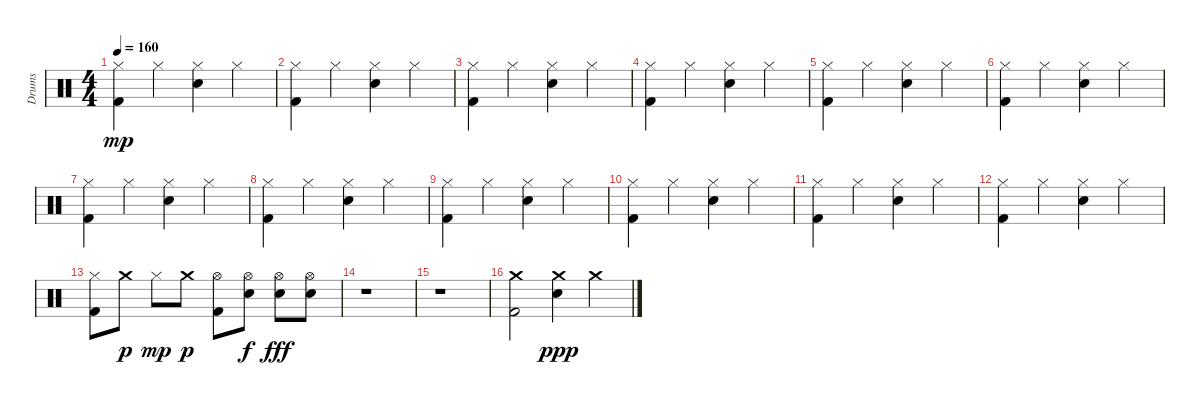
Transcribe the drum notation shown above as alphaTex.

\track ("Drums" "Drums") {instrument percussion}
\staff {score}
\articulation defaults
\ts (4 4)
\tempo 160
\clef neutral
\ks c
("Hi-Hat (closed)" "Kick (hit) 2").4{dy mp} "Hi-Hat (closed)".4 ("Hi-Hat (closed)" "Snare (hit) 2").4 "Hi-Hat (closed)".4 |
("Hi-Hat (closed)" "Kick (hit) 2").4 "Hi-Hat (closed)".4 ("Hi-Hat (closed)" "Snare (hit) 2").4 "Hi-Hat (closed)".4 |
("Hi-Hat (closed)" "Kick (hit) 2").4 "Hi-Hat (closed)".4 ("Hi-Hat (closed)" "Snare (hit) 2").4 "Hi-Hat (closed)".4 |
("Hi-Hat (closed)" "Kick (hit) 2").4 "Hi-Hat (closed)".4 ("Hi-Hat (closed)" "Snare (hit) 2").4 "Hi-Hat (closed)".4 |
("Hi-Hat (closed)" "Kick (hit) 2").4 "Hi-Hat (closed)".4 ("Hi-Hat (closed)" "Snare (hit) 2").4 "Hi-Hat (closed)".4 |
("Hi-Hat (closed)" "Kick (hit) 2").4 "Hi-Hat (closed)".4 ("Hi-Hat (closed)" "Snare (hit) 2").4 "Hi-Hat (closed)".4 |
("Hi-Hat (closed)" "Kick (hit) 2").4 "Hi-Hat (closed)".4 ("Hi-Hat (closed)" "Snare (hit) 2").4 "Hi-Hat (closed)".4 |
("Hi-Hat (closed)" "Kick (hit) 2").4 "Hi-Hat (closed)".4 ("Hi-Hat (closed)" "Snare (hit) 2").4 "Hi-Hat (closed)".4 |
("Hi-Hat (closed)" "Kick (hit) 2").4 "Hi-Hat (closed)".4 ("Hi-Hat (closed)" "Snare (hit) 2").4 "Hi-Hat (closed)".4 |
("Hi-Hat (closed)" "Kick (hit) 2").4 "Hi-Hat (closed)".4 ("Hi-Hat (closed)" "Snare (hit) 2").4 "Hi-Hat (closed)".4 |
("Hi-Hat (closed)" "Kick (hit) 2").4 "Hi-Hat (closed)".4 ("Hi-Hat (closed)" "Snare (hit) 2").4 "Hi-Hat (closed)".4 |
("Hi-Hat (closed)" "Kick (hit) 2").4 "Hi-Hat (closed)".4 ("Hi-Hat (closed)" "Snare (hit) 2").4 "Hi-Hat (closed)".4 |
("Hi-Hat (closed)" "Kick (hit) 2").8 "Crash medium (hit)".8{dy p} "Hi-Hat (closed)".8{dy mp} "Crash medium (hit)".8{dy p} ("Hi-Hat (open)" "Kick (hit) 2").8 ("Hi-Hat (open)" "Snare (hit) 2").8{dy f} ("Hi-Hat (open)" "Snare (hit) 2").8{dy fff} ("Hi-Hat (open)" "Snare (hit) 2").8 |
r.1 |
r.1 |
("Crash medium (hit)" "Kick (hit) 2").2 ("Crash medium (hit)" "Snare (hit) 2").4{dy ppp} "Crash medium (hit)".4
